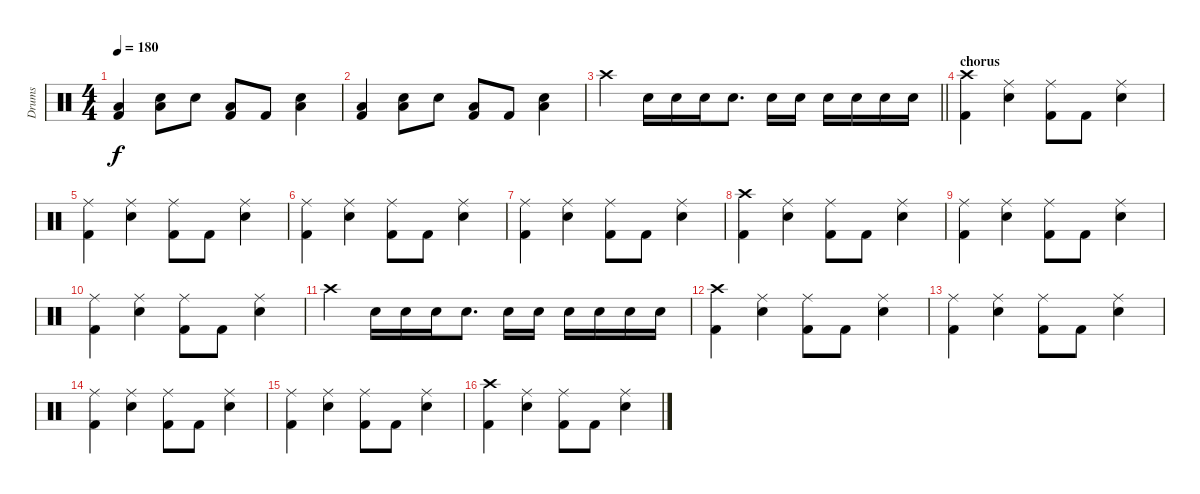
\track ("Drums" "Drums") {instrument percussion}
\staff {score}
\articulation defaults
\ts (4 4)
\tempo 180
\clef neutral
\ks c
("Low Tom (hit)" "Kick (hit) 2").4{dy f} ("Low Tom (hit)" "Electric Snare (hit)").8 "Electric Snare (hit)".8 ("Low Tom (hit)" "Kick (hit) 2").8 "Kick (hit) 2".8 ("Low Tom (hit)" "Electric Snare (hit)").4 |
("Low Tom (hit)" "Kick (hit) 2").4 ("Low Tom (hit)" "Electric Snare (hit)").8 "Electric Snare (hit)".8 ("Low Tom (hit)" "Kick (hit) 2").8 "Kick (hit) 2".8 ("Low Tom (hit)" "Electric Snare (hit)").4 |
\barLineRight lightlight "Crash high (hit)".4 "Electric Snare (hit)".16 "Electric Snare (hit)".16 "Electric Snare (hit)".16 "Electric Snare (hit)".8{d} "Electric Snare (hit)".16 "Electric Snare (hit)".16 "Electric Snare (hit)".16 "Electric Snare (hit)".16 "Electric Snare (hit)".16 "Electric Snare (hit)".16
|
\section ("" "chorus")
("Crash high (hit)" "Kick (hit) 2").4 ("Ride (middle)" "Electric Snare (hit)").4 ("Ride (middle)" "Kick (hit) 2").8 "Kick (hit) 2".8 ("Ride (middle)" "Electric Snare (hit)").4 |
("Ride (middle)" "Kick (hit) 2").4 ("Ride (middle)" "Electric Snare (hit)").4 ("Ride (middle)" "Kick (hit) 2").8 "Kick (hit) 2".8 ("Ride (middle)" "Electric Snare (hit)").4 |
("Ride (middle)" "Kick (hit) 2").4 ("Ride (middle)" "Electric Snare (hit)").4 ("Ride (middle)" "Kick (hit) 2").8 "Kick (hit) 2".8 ("Ride (middle)" "Electric Snare (hit)").4 |
("Ride (middle)" "Kick (hit) 2").4 ("Ride (middle)" "Electric Snare (hit)").4 ("Ride (middle)" "Kick (hit) 2").8 "Kick (hit) 2".8 ("Ride (middle)" "Electric Snare (hit)").4 |
("Crash high (hit)" "Kick (hit) 2").4 ("Ride (middle)" "Electric Snare (hit)").4 ("Ride (middle)" "Kick (hit) 2").8 "Kick (hit) 2".8 ("Ride (middle)" "Electric Snare (hit)").4 |
("Ride (middle)" "Kick (hit) 2").4 ("Ride (middle)" "Electric Snare (hit)").4 ("Ride (middle)" "Kick (hit) 2").8 "Kick (hit) 2".8 ("Ride (middle)" "Electric Snare (hit)").4 |
("Ride (middle)" "Kick (hit) 2").4 ("Ride (middle)" "Electric Snare (hit)").4 ("Ride (middle)" "Kick (hit) 2").8 "Kick (hit) 2".8 ("Ride (middle)" "Electric Snare (hit)").4 |
"Crash high (hit)".4 "Electric Snare (hit)".16 "Electric Snare (hit)".16 "Electric Snare (hit)".16 "Electric Snare (hit)".8{d} "Electric Snare (hit)".16 "Electric Snare (hit)".16 "Electric Snare (hit)".16 "Electric Snare (hit)".16 "Electric Snare (hit)".16 "Electric Snare (hit)".16 |
("Crash high (hit)" "Kick (hit) 2").4 ("Ride (middle)" "Electric Snare (hit)").4 ("Ride (middle)" "Kick (hit) 2").8 "Kick (hit) 2".8 ("Ride (middle)" "Electric Snare (hit)").4 |
("Ride (middle)" "Kick (hit) 2").4 ("Ride (middle)" "Electric Snare (hit)").4 ("Ride (middle)" "Kick (hit) 2").8 "Kick (hit) 2".8 ("Ride (middle)" "Electric Snare (hit)").4 |
("Ride (middle)" "Kick (hit) 2").4 ("Ride (middle)" "Electric Snare (hit)").4 ("Ride (middle)" "Kick (hit) 2").8 "Kick (hit) 2".8 ("Ride (middle)" "Electric Snare (hit)").4 |
("Ride (middle)" "Kick (hit) 2").4 ("Ride (middle)" "Electric Snare (hit)").4 ("Ride (middle)" "Kick (hit) 2").8 "Kick (hit) 2".8 ("Ride (middle)" "Electric Snare (hit)").4 |
("Crash high (hit)" "Kick (hit) 2").4 ("Ride (middle)" "Electric Snare (hit)").4 ("Ride (middle)" "Kick (hit) 2").8 "Kick (hit) 2".8 ("Ride (middle)" "Electric Snare (hit)").4
